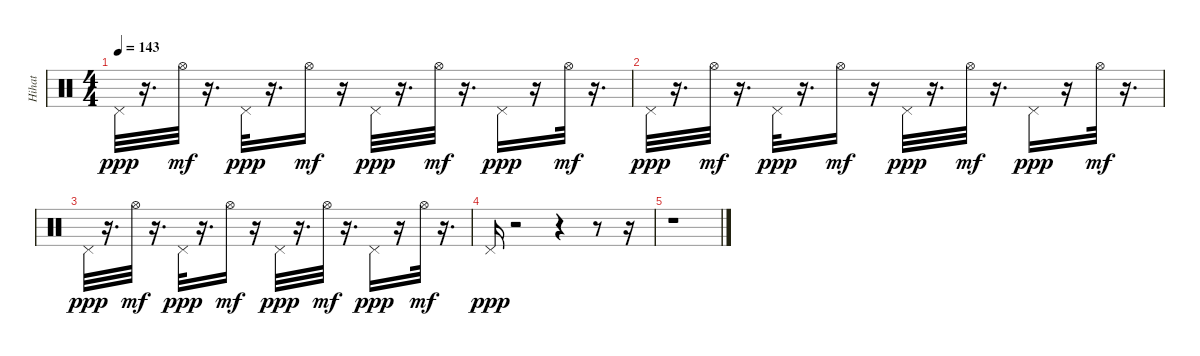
\track ("Hihat    " "Hihat    ") {instrument percussion}
\staff {score}
\articulation defaults
\ts (4 4)
\tempo 143
\clef neutral
\ks c "Pedal Hi-Hat (hit)".32{dy ppp}
r.16{d} "Hi-Hat (open)".32{dy mf} r.16{d} "Pedal Hi-Hat (hit)".32{dy ppp} r.16{d} "Hi-Hat (open)".16{dy mf} r.16 "Pedal Hi-Hat (hit)".32{dy ppp} r.16{d} "Hi-Hat (open)".32{dy mf} r.16{d} "Pedal Hi-Hat (hit)".16{dy ppp} r.16 "Hi-Hat (open)".32{dy mf} r.16{d} |
"Pedal Hi-Hat (hit)".32{dy ppp} r.16{d} "Hi-Hat (open)".32{dy mf} r.16{d} "Pedal Hi-Hat (hit)".32{dy ppp} r.16{d} "Hi-Hat (open)".16{dy mf} r.16 "Pedal Hi-Hat (hit)".32{dy ppp} r.16{d} "Hi-Hat (open)".32{dy mf} r.16{d} "Pedal Hi-Hat (hit)".16{dy ppp} r.16 "Hi-Hat (open)".32{dy mf} r.16{d} |
"Pedal Hi-Hat (hit)".32{dy ppp} r.16{d} "Hi-Hat (open)".32{dy mf} r.16{d} "Pedal Hi-Hat (hit)".32{dy ppp} r.16{d} "Hi-Hat (open)".16{dy mf} r.16 "Pedal Hi-Hat (hit)".32{dy ppp} r.16{d} "Hi-Hat (open)".32{dy mf} r.16{d} "Pedal Hi-Hat (hit)".16{dy ppp} r.16 "Hi-Hat (open)".32{dy mf} r.16{d} |
"Pedal Hi-Hat (hit)".16{dy ppp} r.2 r.4 r.8 r.16 |
r.1
